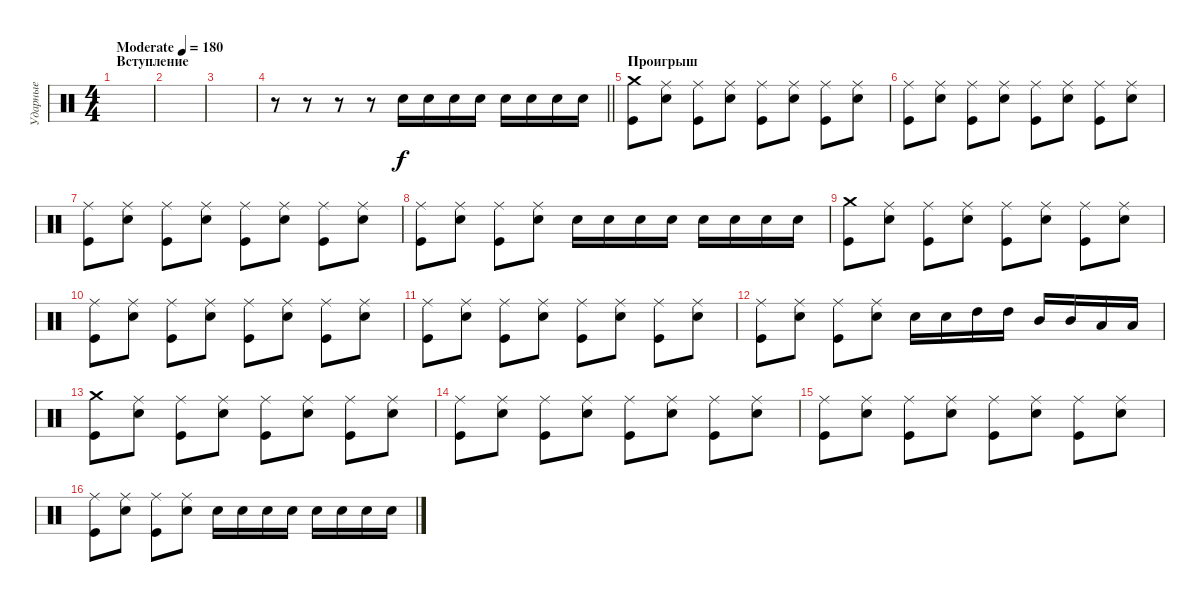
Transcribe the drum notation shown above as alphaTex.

\track ("Ударные" "Ударные") {instrument percussion}
\staff {score}
\articulation defaults
\ts (4 4)
\section ("" "Вступление")
\tempo (180 "Moderate")
\clef neutral
\ks c
|
|
|
\barLineRight lightlight
r.8 r.8 r.8 r.8 "Electric Snare (hit)".16 "Electric Snare (hit)".16 "Electric Snare (hit)".16 "Electric Snare (hit)".16 "Electric Snare (hit)".16 "Electric Snare (hit)".16 "Electric Snare (hit)".16 "Electric Snare (hit)".16 |
\section ("" "Проигрыш")
("Crash medium (hit)" "Kick (hit)").8 ("Ride (middle)" "Electric Snare (hit)").8 ("Ride (middle)" "Kick (hit)").8 ("Ride (middle)" "Electric Snare (hit)").8 ("Ride (middle)" "Kick (hit)").8 ("Ride (middle)" "Electric Snare (hit)").8 ("Ride (middle)" "Kick (hit)").8 ("Ride (middle)" "Electric Snare (hit)").8 |
("Ride (middle)" "Kick (hit)").8 ("Ride (middle)" "Electric Snare (hit)").8 ("Ride (middle)" "Kick (hit)").8 ("Ride (middle)" "Electric Snare (hit)").8 ("Ride (middle)" "Kick (hit)").8 ("Ride (middle)" "Electric Snare (hit)").8 ("Ride (middle)" "Kick (hit)").8 ("Ride (middle)" "Electric Snare (hit)").8 |
("Ride (middle)" "Kick (hit)").8 ("Ride (middle)" "Electric Snare (hit)").8 ("Ride (middle)" "Kick (hit)").8 ("Ride (middle)" "Electric Snare (hit)").8 ("Ride (middle)" "Kick (hit)").8 ("Ride (middle)" "Electric Snare (hit)").8 ("Ride (middle)" "Kick (hit)").8 ("Ride (middle)" "Electric Snare (hit)").8 |
("Ride (middle)" "Kick (hit)").8 ("Ride (middle)" "Electric Snare (hit)").8 ("Ride (middle)" "Kick (hit)").8 ("Ride (middle)" "Electric Snare (hit)").8 "Electric Snare (hit)".16 "Electric Snare (hit)".16 "Electric Snare (hit)".16 "Electric Snare (hit)".16 "Electric Snare (hit)".16 "Electric Snare (hit)".16 "Electric Snare (hit)".16 "Electric Snare (hit)".16 |
("Crash medium (hit)" "Kick (hit)").8 ("Ride (middle)" "Electric Snare (hit)").8 ("Ride (middle)" "Kick (hit)").8 ("Ride (middle)" "Electric Snare (hit)").8 ("Ride (middle)" "Kick (hit)").8 ("Ride (middle)" "Electric Snare (hit)").8 ("Ride (middle)" "Kick (hit)").8 ("Ride (middle)" "Electric Snare (hit)").8 |
("Ride (middle)" "Kick (hit)").8 ("Ride (middle)" "Electric Snare (hit)").8 ("Ride (middle)" "Kick (hit)").8 ("Ride (middle)" "Electric Snare (hit)").8 ("Ride (middle)" "Kick (hit)").8 ("Ride (middle)" "Electric Snare (hit)").8 ("Ride (middle)" "Kick (hit)").8 ("Ride (middle)" "Electric Snare (hit)").8 |
("Ride (middle)" "Kick (hit)").8 ("Ride (middle)" "Electric Snare (hit)").8 ("Ride (middle)" "Kick (hit)").8 ("Ride (middle)" "Electric Snare (hit)").8 ("Ride (middle)" "Kick (hit)").8 ("Ride (middle)" "Electric Snare (hit)").8 ("Ride (middle)" "Kick (hit)").8 ("Ride (middle)" "Electric Snare (hit)").8 |
("Ride (middle)" "Kick (hit)").8 ("Ride (middle)" "Electric Snare (hit)").8 ("Ride (middle)" "Kick (hit)").8 ("Ride (middle)" "Electric Snare (hit)").8 "Electric Snare (hit)".16 "Electric Snare (hit)".16 "High Tom (hit)".16 "High Tom (hit)".16 "Mid Tom (hit)".16 "Mid Tom (hit)".16 "Low Tom (hit)".16 "Low Tom (hit)".16 |
("Crash medium (hit)" "Kick (hit)").8 ("Ride (middle)" "Electric Snare (hit)").8 ("Ride (middle)" "Kick (hit)").8 ("Ride (middle)" "Electric Snare (hit)").8 ("Ride (middle)" "Kick (hit)").8 ("Ride (middle)" "Electric Snare (hit)").8 ("Ride (middle)" "Kick (hit)").8 ("Ride (middle)" "Electric Snare (hit)").8 |
("Ride (middle)" "Kick (hit)").8 ("Ride (middle)" "Electric Snare (hit)").8 ("Ride (middle)" "Kick (hit)").8 ("Ride (middle)" "Electric Snare (hit)").8 ("Ride (middle)" "Kick (hit)").8 ("Ride (middle)" "Electric Snare (hit)").8 ("Ride (middle)" "Kick (hit)").8 ("Ride (middle)" "Electric Snare (hit)").8 |
("Ride (middle)" "Kick (hit)").8 ("Ride (middle)" "Electric Snare (hit)").8 ("Ride (middle)" "Kick (hit)").8 ("Ride (middle)" "Electric Snare (hit)").8 ("Ride (middle)" "Kick (hit)").8 ("Ride (middle)" "Electric Snare (hit)").8 ("Ride (middle)" "Kick (hit)").8 ("Ride (middle)" "Electric Snare (hit)").8 |
("Ride (middle)" "Kick (hit)").8 ("Ride (middle)" "Electric Snare (hit)").8 ("Ride (middle)" "Kick (hit)").8 ("Ride (middle)" "Electric Snare (hit)").8 "Electric Snare (hit)".16 "Electric Snare (hit)".16 "Electric Snare (hit)".16 "Electric Snare (hit)".16 "Electric Snare (hit)".16 "Electric Snare (hit)".16 "Electric Snare (hit)".16 "Electric Snare (hit)".16
